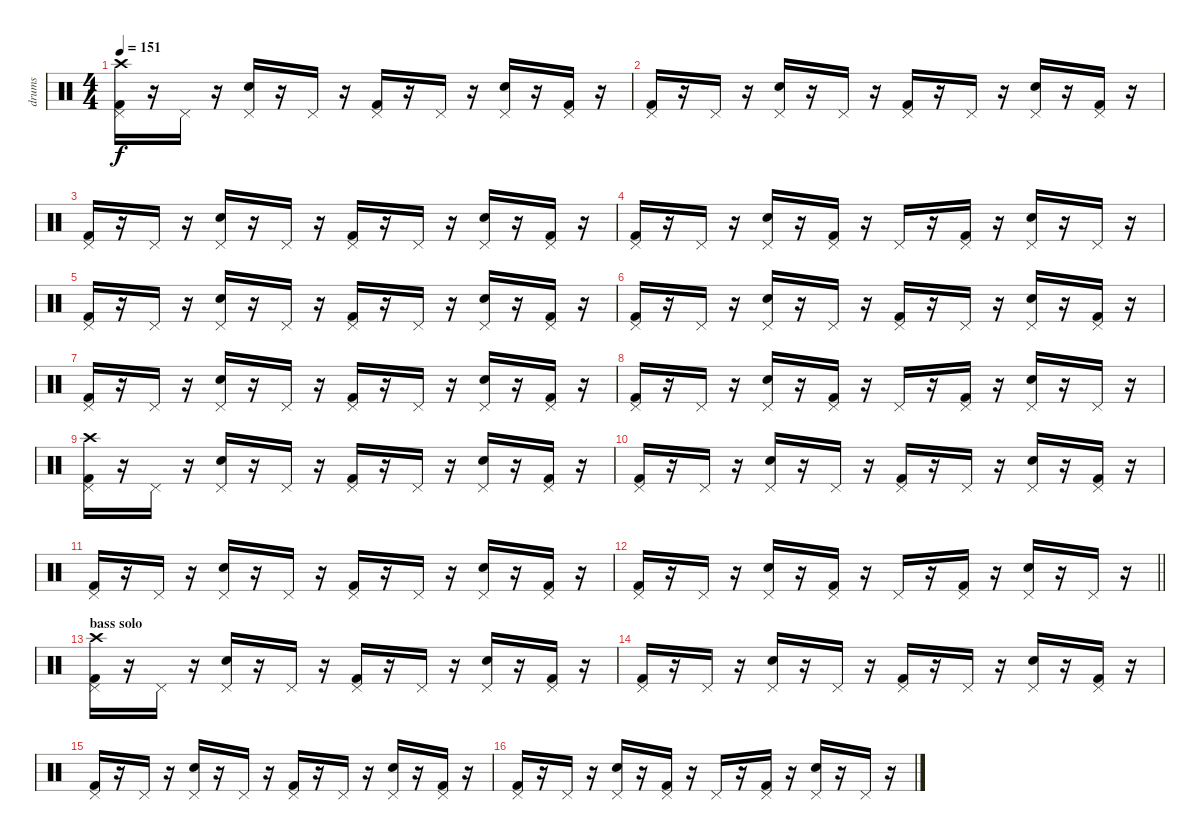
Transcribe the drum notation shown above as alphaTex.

\track ("drums" "drums") {instrument percussion}
\staff {score}
\articulation defaults
\ts (4 4)
\tempo 151
\clef neutral
\ks c
("Kick (hit) 2" "Pedal Hi-Hat (hit)" "Crash high (hit)").16{dy f} r.16 "Pedal Hi-Hat (hit)".16 r.16 ("Electric Snare (hit)" "Pedal Hi-Hat (hit)").16 r.16 "Pedal Hi-Hat (hit)".16 r.16 ("Kick (hit) 2" "Pedal Hi-Hat (hit)").16 r.16 "Pedal Hi-Hat (hit)".16 r.16 ("Electric Snare (hit)" "Pedal Hi-Hat (hit)").16 r.16 ("Kick (hit) 2" "Pedal Hi-Hat (hit)").16 r.16 |
("Kick (hit) 2" "Pedal Hi-Hat (hit)").16 r.16 "Pedal Hi-Hat (hit)".16 r.16 ("Electric Snare (hit)" "Pedal Hi-Hat (hit)").16 r.16 "Pedal Hi-Hat (hit)".16 r.16 ("Kick (hit) 2" "Pedal Hi-Hat (hit)").16 r.16 "Pedal Hi-Hat (hit)".16 r.16 ("Electric Snare (hit)" "Pedal Hi-Hat (hit)").16 r.16 ("Kick (hit) 2" "Pedal Hi-Hat (hit)").16 r.16 |
("Kick (hit) 2" "Pedal Hi-Hat (hit)").16 r.16 "Pedal Hi-Hat (hit)".16 r.16 ("Electric Snare (hit)" "Pedal Hi-Hat (hit)").16 r.16 "Pedal Hi-Hat (hit)".16 r.16 ("Kick (hit) 2" "Pedal Hi-Hat (hit)").16 r.16 "Pedal Hi-Hat (hit)".16 r.16 ("Electric Snare (hit)" "Pedal Hi-Hat (hit)").16 r.16 ("Kick (hit) 2" "Pedal Hi-Hat (hit)").16 r.16 |
("Kick (hit) 2" "Pedal Hi-Hat (hit)").16 r.16 "Pedal Hi-Hat (hit)".16 r.16 ("Electric Snare (hit)" "Pedal Hi-Hat (hit)").16 r.16 ("Kick (hit) 2" "Pedal Hi-Hat (hit)").16 r.16 "Pedal Hi-Hat (hit)".16 r.16 ("Kick (hit) 2" "Pedal Hi-Hat (hit)").16 r.16 ("Electric Snare (hit)" "Pedal Hi-Hat (hit)").16 r.16 "Pedal Hi-Hat (hit)".16 r.16 |
("Kick (hit) 2" "Pedal Hi-Hat (hit)").16 r.16 "Pedal Hi-Hat (hit)".16 r.16 ("Electric Snare (hit)" "Pedal Hi-Hat (hit)").16 r.16 "Pedal Hi-Hat (hit)".16 r.16 ("Kick (hit) 2" "Pedal Hi-Hat (hit)").16 r.16 "Pedal Hi-Hat (hit)".16 r.16 ("Electric Snare (hit)" "Pedal Hi-Hat (hit)").16 r.16 ("Kick (hit) 2" "Pedal Hi-Hat (hit)").16 r.16 |
("Kick (hit) 2" "Pedal Hi-Hat (hit)").16 r.16 "Pedal Hi-Hat (hit)".16 r.16 ("Electric Snare (hit)" "Pedal Hi-Hat (hit)").16 r.16 "Pedal Hi-Hat (hit)".16 r.16 ("Kick (hit) 2" "Pedal Hi-Hat (hit)").16 r.16 "Pedal Hi-Hat (hit)".16 r.16 ("Electric Snare (hit)" "Pedal Hi-Hat (hit)").16 r.16 ("Kick (hit) 2" "Pedal Hi-Hat (hit)").16 r.16 |
("Kick (hit) 2" "Pedal Hi-Hat (hit)").16 r.16 "Pedal Hi-Hat (hit)".16 r.16 ("Electric Snare (hit)" "Pedal Hi-Hat (hit)").16 r.16 "Pedal Hi-Hat (hit)".16 r.16 ("Kick (hit) 2" "Pedal Hi-Hat (hit)").16 r.16 "Pedal Hi-Hat (hit)".16 r.16 ("Electric Snare (hit)" "Pedal Hi-Hat (hit)").16 r.16 ("Kick (hit) 2" "Pedal Hi-Hat (hit)").16 r.16 |
("Kick (hit) 2" "Pedal Hi-Hat (hit)").16 r.16 "Pedal Hi-Hat (hit)".16 r.16 ("Electric Snare (hit)" "Pedal Hi-Hat (hit)").16 r.16 ("Kick (hit) 2" "Pedal Hi-Hat (hit)").16 r.16 "Pedal Hi-Hat (hit)".16 r.16 ("Kick (hit) 2" "Pedal Hi-Hat (hit)").16 r.16 ("Electric Snare (hit)" "Pedal Hi-Hat (hit)").16 r.16 "Pedal Hi-Hat (hit)".16 r.16 |
("Kick (hit) 2" "Pedal Hi-Hat (hit)" "Crash high (hit)").16 r.16 "Pedal Hi-Hat (hit)".16 r.16 ("Electric Snare (hit)" "Pedal Hi-Hat (hit)").16 r.16 "Pedal Hi-Hat (hit)".16 r.16 ("Kick (hit) 2" "Pedal Hi-Hat (hit)").16 r.16 "Pedal Hi-Hat (hit)".16 r.16 ("Electric Snare (hit)" "Pedal Hi-Hat (hit)").16 r.16 ("Kick (hit) 2" "Pedal Hi-Hat (hit)").16 r.16 |
("Kick (hit) 2" "Pedal Hi-Hat (hit)").16 r.16 "Pedal Hi-Hat (hit)".16 r.16 ("Electric Snare (hit)" "Pedal Hi-Hat (hit)").16 r.16 "Pedal Hi-Hat (hit)".16 r.16 ("Kick (hit) 2" "Pedal Hi-Hat (hit)").16 r.16 "Pedal Hi-Hat (hit)".16 r.16 ("Electric Snare (hit)" "Pedal Hi-Hat (hit)").16 r.16 ("Kick (hit) 2" "Pedal Hi-Hat (hit)").16 r.16 |
("Kick (hit) 2" "Pedal Hi-Hat (hit)").16 r.16 "Pedal Hi-Hat (hit)".16 r.16 ("Electric Snare (hit)" "Pedal Hi-Hat (hit)").16 r.16 "Pedal Hi-Hat (hit)".16 r.16 ("Kick (hit) 2" "Pedal Hi-Hat (hit)").16 r.16 "Pedal Hi-Hat (hit)".16 r.16 ("Electric Snare (hit)" "Pedal Hi-Hat (hit)").16 r.16 ("Kick (hit) 2" "Pedal Hi-Hat (hit)").16 r.16 |
\barLineRight lightlight
("Kick (hit) 2" "Pedal Hi-Hat (hit)").16 r.16 "Pedal Hi-Hat (hit)".16 r.16 ("Electric Snare (hit)" "Pedal Hi-Hat (hit)").16 r.16 ("Kick (hit) 2" "Pedal Hi-Hat (hit)").16 r.16 "Pedal Hi-Hat (hit)".16 r.16 ("Kick (hit) 2" "Pedal Hi-Hat (hit)").16 r.16 ("Electric Snare (hit)" "Pedal Hi-Hat (hit)").16 r.16 "Pedal Hi-Hat (hit)".16 r.16 |
\section ("" "bass solo")
("Kick (hit) 2" "Pedal Hi-Hat (hit)" "Crash high (hit)").16 r.16 "Pedal Hi-Hat (hit)".16 r.16 ("Electric Snare (hit)" "Pedal Hi-Hat (hit)").16 r.16 "Pedal Hi-Hat (hit)".16 r.16 ("Kick (hit) 2" "Pedal Hi-Hat (hit)").16 r.16 "Pedal Hi-Hat (hit)".16 r.16 ("Electric Snare (hit)" "Pedal Hi-Hat (hit)").16 r.16 ("Kick (hit) 2" "Pedal Hi-Hat (hit)").16 r.16 |
("Kick (hit) 2" "Pedal Hi-Hat (hit)").16 r.16 "Pedal Hi-Hat (hit)".16 r.16 ("Electric Snare (hit)" "Pedal Hi-Hat (hit)").16 r.16 "Pedal Hi-Hat (hit)".16 r.16 ("Kick (hit) 2" "Pedal Hi-Hat (hit)").16 r.16 "Pedal Hi-Hat (hit)".16 r.16 ("Electric Snare (hit)" "Pedal Hi-Hat (hit)").16 r.16 ("Kick (hit) 2" "Pedal Hi-Hat (hit)").16 r.16 |
("Kick (hit) 2" "Pedal Hi-Hat (hit)").16 r.16 "Pedal Hi-Hat (hit)".16 r.16 ("Electric Snare (hit)" "Pedal Hi-Hat (hit)").16 r.16 "Pedal Hi-Hat (hit)".16 r.16 ("Kick (hit) 2" "Pedal Hi-Hat (hit)").16 r.16 "Pedal Hi-Hat (hit)".16 r.16 ("Electric Snare (hit)" "Pedal Hi-Hat (hit)").16 r.16 ("Kick (hit) 2" "Pedal Hi-Hat (hit)").16 r.16 |
("Kick (hit) 2" "Pedal Hi-Hat (hit)").16 r.16 "Pedal Hi-Hat (hit)".16 r.16 ("Electric Snare (hit)" "Pedal Hi-Hat (hit)").16 r.16 ("Kick (hit) 2" "Pedal Hi-Hat (hit)").16 r.16 "Pedal Hi-Hat (hit)".16 r.16 ("Kick (hit) 2" "Pedal Hi-Hat (hit)").16 r.16 ("Electric Snare (hit)" "Pedal Hi-Hat (hit)").16 r.16 "Pedal Hi-Hat (hit)".16 r.16
